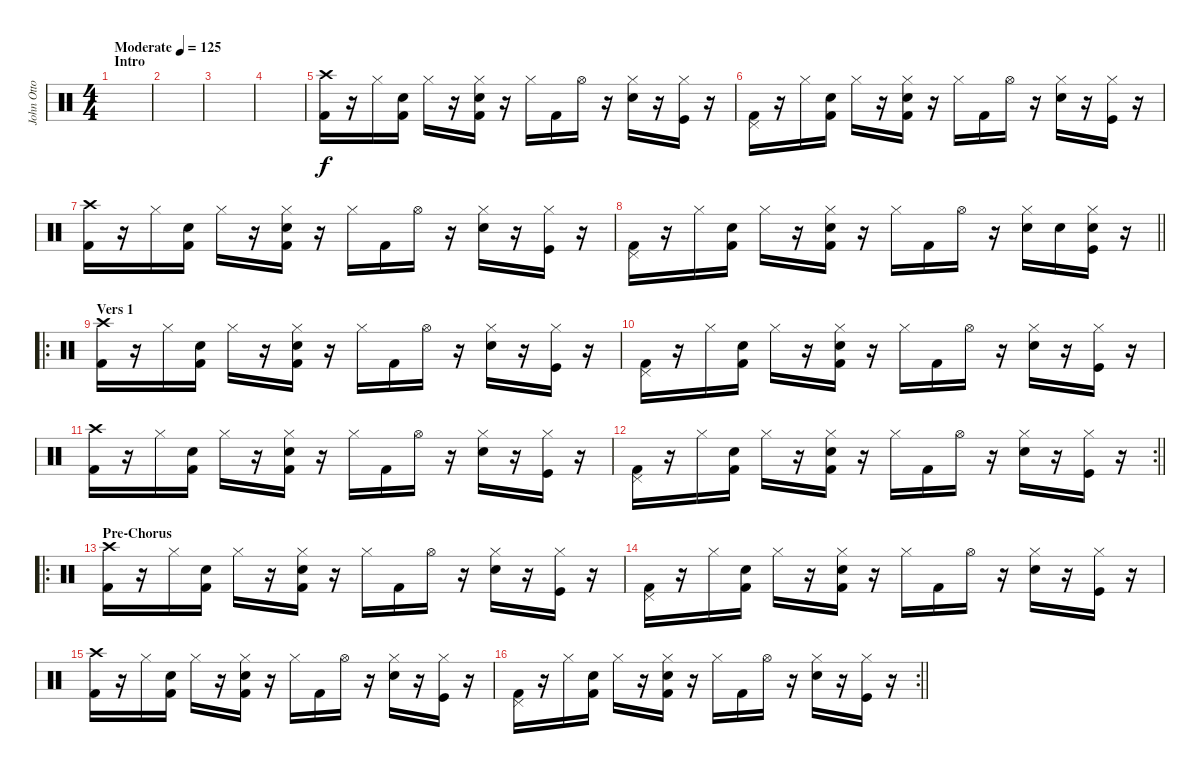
\track ("John Otto" "John Otto") {instrument percussion}
\staff {score}
\articulation defaults
\ts (4 4)
\section ("" "Intro")
\tempo (125 "Moderate")
\clef neutral
\ks c
|
|
|
|
("Crash high (hit)" "Kick (hit) 2").16 r.16 "Hi-Hat (closed)".16 ("Electric Snare (hit)" "Kick (hit) 2").16 "Hi-Hat (closed)".16 r.16 ("Hi-Hat (closed)" "Snare (hit) 2" "Kick (hit) 2").16 r.16 "Hi-Hat (closed)".16 "Kick (hit) 2".16 "Hi-Hat (open)".16 r.16 ("Hi-Hat (closed)" "Snare (hit) 2").16 r.16 ("Hi-Hat (closed)" "Kick (hit)").16 r.16 |
("Pedal Hi-Hat (hit)" "Kick (hit) 2").16 r.16 "Hi-Hat (closed)".16 ("Electric Snare (hit)" "Kick (hit) 2").16 "Hi-Hat (closed)".16 r.16 ("Hi-Hat (closed)" "Snare (hit) 2" "Kick (hit) 2").16 r.16 "Hi-Hat (closed)".16 "Kick (hit) 2".16 "Hi-Hat (open)".16 r.16 ("Hi-Hat (closed)" "Snare (hit) 2").16 r.16 ("Hi-Hat (closed)" "Kick (hit)").16 r.16 |
("Crash high (hit)" "Kick (hit) 2").16 r.16 "Hi-Hat (closed)".16 ("Electric Snare (hit)" "Kick (hit) 2").16 "Hi-Hat (closed)".16 r.16 ("Hi-Hat (closed)" "Snare (hit) 2" "Kick (hit) 2").16 r.16 "Hi-Hat (closed)".16 "Kick (hit) 2".16 "Hi-Hat (open)".16 r.16 ("Hi-Hat (closed)" "Snare (hit) 2").16 r.16 ("Hi-Hat (closed)" "Kick (hit)").16 r.16 |
\barLineRight lightlight
("Pedal Hi-Hat (hit)" "Kick (hit) 2").16 r.16 "Hi-Hat (closed)".16 ("Electric Snare (hit)" "Kick (hit) 2").16 "Hi-Hat (closed)".16 r.16 ("Hi-Hat (closed)" "Snare (hit) 2" "Kick (hit) 2").16 r.16 "Hi-Hat (closed)".16 "Kick (hit) 2".16 "Hi-Hat (open)".16 r.16 ("Hi-Hat (closed)" "Snare (hit) 2").16 "Snare (hit) 2".16 ("Hi-Hat (closed)" "Snare (hit) 2" "Kick (hit)").16 r.16 |
\ro
\section ("" "Vers 1")
("Crash high (hit)" "Kick (hit) 2").16 r.16 "Hi-Hat (closed)".16 ("Electric Snare (hit)" "Kick (hit) 2").16 "Hi-Hat (closed)".16 r.16 ("Hi-Hat (closed)" "Snare (hit) 2" "Kick (hit) 2").16 r.16 "Hi-Hat (closed)".16 "Kick (hit) 2".16 "Hi-Hat (open)".16 r.16 ("Hi-Hat (closed)" "Snare (hit) 2").16 r.16 ("Hi-Hat (closed)" "Kick (hit)").16 r.16 |
("Pedal Hi-Hat (hit)" "Kick (hit) 2").16 r.16 "Hi-Hat (closed)".16 ("Electric Snare (hit)" "Kick (hit) 2").16 "Hi-Hat (closed)".16 r.16 ("Hi-Hat (closed)" "Snare (hit) 2" "Kick (hit) 2").16 r.16 "Hi-Hat (closed)".16 "Kick (hit) 2".16 "Hi-Hat (open)".16 r.16 ("Hi-Hat (closed)" "Snare (hit) 2").16 r.16 ("Hi-Hat (closed)" "Kick (hit)").16 r.16 |
("Crash high (hit)" "Kick (hit) 2").16 r.16 "Hi-Hat (closed)".16 ("Electric Snare (hit)" "Kick (hit) 2").16 "Hi-Hat (closed)".16 r.16 ("Hi-Hat (closed)" "Snare (hit) 2" "Kick (hit) 2").16 r.16 "Hi-Hat (closed)".16 "Kick (hit) 2".16 "Hi-Hat (open)".16 r.16 ("Hi-Hat (closed)" "Snare (hit) 2").16 r.16 ("Hi-Hat (closed)" "Kick (hit)").16 r.16 |
\rc 2
\barLineRight lightlight
("Pedal Hi-Hat (hit)" "Kick (hit) 2").16 r.16 "Hi-Hat (closed)".16 ("Electric Snare (hit)" "Kick (hit) 2").16 "Hi-Hat (closed)".16 r.16 ("Hi-Hat (closed)" "Snare (hit) 2" "Kick (hit) 2").16 r.16 "Hi-Hat (closed)".16 "Kick (hit) 2".16 "Hi-Hat (open)".16 r.16 ("Hi-Hat (closed)" "Snare (hit) 2").16 r.16 ("Hi-Hat (closed)" "Kick (hit)").16 r.16 |
\ro
\section ("" "Pre-Chorus")
("Crash high (hit)" "Kick (hit) 2").16 r.16 "Hi-Hat (closed)".16 ("Electric Snare (hit)" "Kick (hit) 2").16 "Hi-Hat (closed)".16 r.16 ("Hi-Hat (closed)" "Snare (hit) 2" "Kick (hit) 2").16 r.16 "Hi-Hat (closed)".16 "Kick (hit) 2".16 "Hi-Hat (open)".16 r.16 ("Hi-Hat (closed)" "Snare (hit) 2").16 r.16 ("Hi-Hat (closed)" "Kick (hit)").16 r.16 |
("Pedal Hi-Hat (hit)" "Kick (hit) 2").16 r.16 "Hi-Hat (closed)".16 ("Electric Snare (hit)" "Kick (hit) 2").16 "Hi-Hat (closed)".16 r.16 ("Hi-Hat (closed)" "Snare (hit) 2" "Kick (hit) 2").16 r.16 "Hi-Hat (closed)".16 "Kick (hit) 2".16 "Hi-Hat (open)".16 r.16 ("Hi-Hat (closed)" "Snare (hit) 2").16 r.16 ("Hi-Hat (closed)" "Kick (hit)").16 r.16 |
("Crash high (hit)" "Kick (hit) 2").16 r.16 "Hi-Hat (closed)".16 ("Electric Snare (hit)" "Kick (hit) 2").16 "Hi-Hat (closed)".16 r.16 ("Hi-Hat (closed)" "Snare (hit) 2" "Kick (hit) 2").16 r.16 "Hi-Hat (closed)".16 "Kick (hit) 2".16 "Hi-Hat (open)".16 r.16 ("Hi-Hat (closed)" "Snare (hit) 2").16 r.16 ("Hi-Hat (closed)" "Kick (hit)").16 r.16 |
\rc 2
\barLineRight lightlight
("Pedal Hi-Hat (hit)" "Kick (hit) 2").16 r.16 "Hi-Hat (closed)".16 ("Electric Snare (hit)" "Kick (hit) 2").16 "Hi-Hat (closed)".16 r.16 ("Hi-Hat (closed)" "Snare (hit) 2" "Kick (hit) 2").16 r.16 "Hi-Hat (closed)".16 "Kick (hit) 2".16 "Hi-Hat (open)".16 r.16 ("Hi-Hat (closed)" "Snare (hit) 2").16 r.16 ("Hi-Hat (closed)" "Kick (hit)").16 r.16
